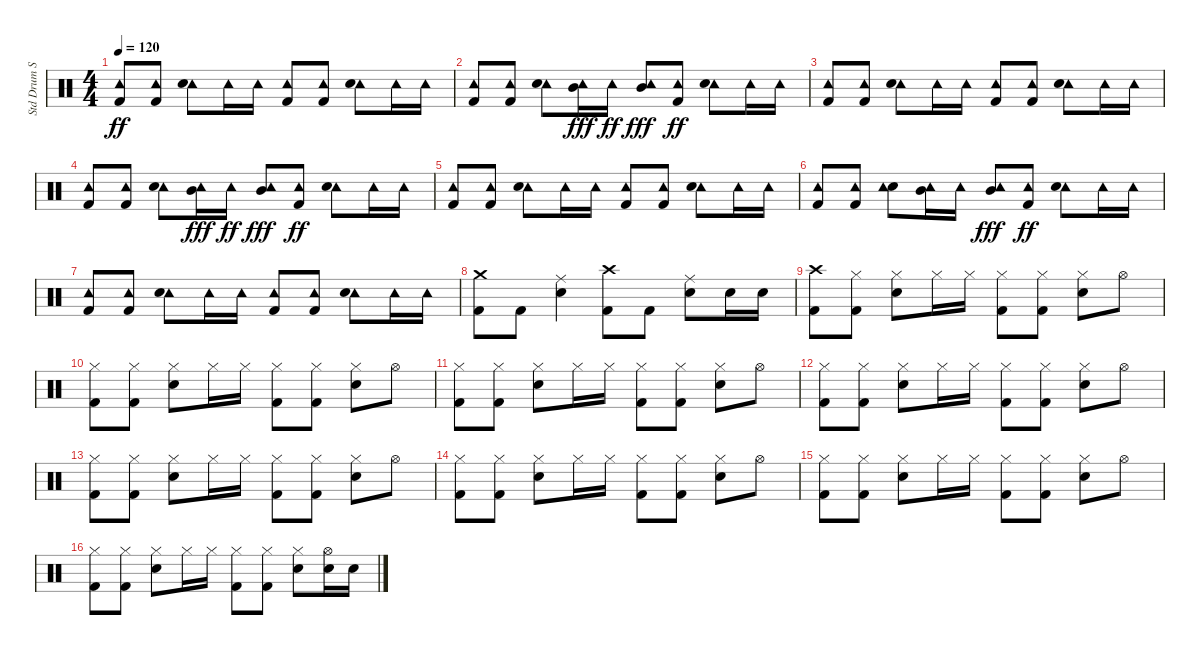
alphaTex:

\track ("Std Drum Set 1" "Std Drum S") {instrument percussion}
\staff {score}
\articulation defaults
\ts (4 4)
\tempo 120
\clef neutral
\ks c
("Tambourine (hit)" "Kick (hit) 2").8{dy ff} ("Tambourine (hit)" "Kick (hit) 2").8 ("Tambourine (hit)" "Snare (hit) 2").8 "Tambourine (hit)".16 "Tambourine (hit)".16 ("Tambourine (hit)" "Kick (hit) 2").8 ("Tambourine (hit)" "Kick (hit) 2").8 ("Tambourine (hit)" "Snare (hit) 2").8 "Tambourine (hit)".16 "Tambourine (hit)".16 |
("Tambourine (hit)" "Kick (hit) 2").8 ("Tambourine (hit)" "Kick (hit) 2").8 ("Tambourine (hit)" "Snare (hit) 2").8 ("Tambourine (hit)" "Mid Tom (hit)").16{dy fff} "Tambourine (hit)".16{dy ff} ("Tambourine (hit)" "Mid Tom (hit)").8{dy fff} ("Tambourine (hit)" "Kick (hit) 2").8{dy ff} ("Tambourine (hit)" "Snare (hit) 2").8 "Tambourine (hit)".16 "Tambourine (hit)".16 |
("Tambourine (hit)" "Kick (hit) 2").8 ("Tambourine (hit)" "Kick (hit) 2").8 ("Tambourine (hit)" "Snare (hit) 2").8 "Tambourine (hit)".16 "Tambourine (hit)".16 ("Tambourine (hit)" "Kick (hit) 2").8 ("Tambourine (hit)" "Kick (hit) 2").8 ("Tambourine (hit)" "Snare (hit) 2").8 "Tambourine (hit)".16 "Tambourine (hit)".16 |
("Kick (hit) 2" "Tambourine (hit)").8 ("Kick (hit) 2" "Tambourine (hit)").8 ("Tambourine (hit)" "Snare (hit) 2").8 ("Tambourine (hit)" "Mid Tom (hit)").16{dy fff} "Tambourine (hit)".16{dy ff} ("Tambourine (hit)" "Mid Tom (hit)").8{dy fff} ("Tambourine (hit)" "Kick (hit) 2").8{dy ff} ("Tambourine (hit)" "Snare (hit) 2").8 "Tambourine (hit)".16 "Tambourine (hit)".16 |
("Kick (hit) 2" "Tambourine (hit)").8 ("Kick (hit) 2" "Tambourine (hit)").8 ("Tambourine (hit)" "Snare (hit) 2").8 "Tambourine (hit)".16 "Tambourine (hit)".16 ("Tambourine (hit)" "Kick (hit) 2").8 ("Kick (hit) 2" "Tambourine (hit)").8 ("Tambourine (hit)" "Snare (hit) 2").8 "Tambourine (hit)".16 "Tambourine (hit)".16 |
("Kick (hit) 2" "Tambourine (hit)").8 ("Kick (hit) 2" "Tambourine (hit)").8 ("Snare (hit) 2" "Tambourine (hit)").8 ("Mid Tom (hit)" "Tambourine (hit)").16 "Tambourine (hit)".16 ("Tambourine (hit)" "Mid Tom (hit)").8{dy fff} ("Tambourine (hit)" "Kick (hit) 2").8{dy ff} ("Tambourine (hit)" "Snare (hit) 2").8 "Tambourine (hit)".16 "Tambourine (hit)".16 |
("Tambourine (hit)" "Kick (hit) 2").8 ("Tambourine (hit)" "Kick (hit) 2").8 ("Tambourine (hit)" "Snare (hit) 2").8 "Tambourine (hit)".16 "Tambourine (hit)".16 ("Tambourine (hit)" "Kick (hit) 2").8 ("Tambourine (hit)" "Kick (hit) 2").8 ("Tambourine (hit)" "Snare (hit) 2").8 "Tambourine (hit)".16 "Tambourine (hit)".16 |
("Crash medium (hit)" "Kick (hit) 2").8 "Kick (hit) 2".8 ("Ride (middle)" "Snare (hit) 2").4 ("Crash high (hit)" "Kick (hit) 2").8 "Kick (hit) 2".8 ("Ride (middle)" "Snare (hit) 2").8 "Snare (hit) 2".16 "Snare (hit) 2".16 |
("Crash high (hit)" "Kick (hit) 2").8 ("Kick (hit) 2" "Hi-Hat (closed)").8 ("Hi-Hat (closed)" "Snare (hit) 2").8 "Hi-Hat (closed)".16 "Hi-Hat (closed)".16 ("Kick (hit) 2" "Hi-Hat (closed)").8 ("Kick (hit) 2" "Hi-Hat (closed)").8 ("Hi-Hat (closed)" "Snare (hit) 2").8 "Hi-Hat (open)".8 |
("Kick (hit) 2" "Hi-Hat (closed)").8 ("Kick (hit) 2" "Hi-Hat (closed)").8 ("Hi-Hat (closed)" "Snare (hit) 2").8 "Hi-Hat (closed)".16 "Hi-Hat (closed)".16 ("Hi-Hat (closed)" "Kick (hit) 2").8 ("Kick (hit) 2" "Hi-Hat (closed)").8 ("Snare (hit) 2" "Hi-Hat (closed)").8 "Hi-Hat (open)".8 |
("Hi-Hat (closed)" "Kick (hit) 2").8 ("Hi-Hat (closed)" "Kick (hit) 2").8 ("Hi-Hat (closed)" "Snare (hit) 2").8 "Hi-Hat (closed)".16 "Hi-Hat (closed)".16 ("Hi-Hat (closed)" "Kick (hit) 2").8 ("Hi-Hat (closed)" "Kick (hit) 2").8 ("Hi-Hat (closed)" "Snare (hit) 2").8 "Hi-Hat (open)".8 |
("Hi-Hat (closed)" "Kick (hit) 2").8 ("Hi-Hat (closed)" "Kick (hit) 2").8 ("Hi-Hat (closed)" "Snare (hit) 2").8 "Hi-Hat (closed)".16 "Hi-Hat (closed)".16 ("Hi-Hat (closed)" "Kick (hit) 2").8 ("Kick (hit) 2" "Hi-Hat (closed)").8 ("Snare (hit) 2" "Hi-Hat (closed)").8 "Hi-Hat (open)".8 |
("Hi-Hat (closed)" "Kick (hit) 2").8 ("Hi-Hat (closed)" "Kick (hit) 2").8 ("Hi-Hat (closed)" "Snare (hit) 2").8 "Hi-Hat (closed)".16 "Hi-Hat (closed)".16 ("Kick (hit) 2" "Hi-Hat (closed)").8 ("Hi-Hat (closed)" "Kick (hit) 2").8 ("Hi-Hat (closed)" "Snare (hit) 2").8 "Hi-Hat (open)".8 |
("Hi-Hat (closed)" "Kick (hit) 2").8 ("Hi-Hat (closed)" "Kick (hit) 2").8 ("Hi-Hat (closed)" "Snare (hit) 2").8 "Hi-Hat (closed)".16 "Hi-Hat (closed)".16 ("Hi-Hat (closed)" "Kick (hit) 2").8 ("Hi-Hat (closed)" "Kick (hit) 2").8 ("Hi-Hat (closed)" "Snare (hit) 2").8 "Hi-Hat (open)".8 |
("Hi-Hat (closed)" "Kick (hit) 2").8 ("Hi-Hat (closed)" "Kick (hit) 2").8 ("Snare (hit) 2" "Hi-Hat (closed)").8 "Hi-Hat (closed)".16 "Hi-Hat (closed)".16 ("Kick (hit) 2" "Hi-Hat (closed)").8 ("Hi-Hat (closed)" "Kick (hit) 2").8 ("Hi-Hat (closed)" "Snare (hit) 2").8 "Hi-Hat (open)".8 |
("Kick (hit) 2" "Hi-Hat (closed)").8 ("Hi-Hat (closed)" "Kick (hit) 2").8 ("Snare (hit) 2" "Hi-Hat (closed)").8 "Hi-Hat (closed)".16 "Hi-Hat (closed)".16 ("Hi-Hat (closed)" "Kick (hit) 2").8 ("Hi-Hat (closed)" "Kick (hit) 2").8 ("Hi-Hat (closed)" "Snare (hit) 2").8 ("Hi-Hat (open)" "Snare (hit) 2").16 "Snare (hit) 2".16
